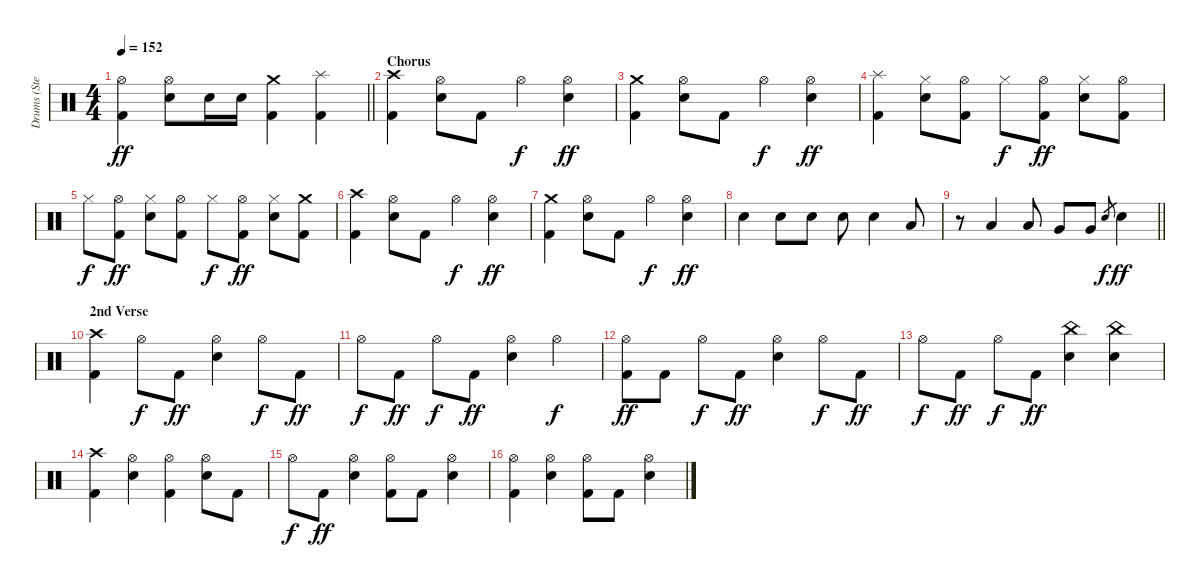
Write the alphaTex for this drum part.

\track ("Drums (Steven)" "Drums (Ste") {instrument percussion}
\staff {score}
\articulation defaults
\ts (4 4)
\tempo 152
\clef neutral
\barLineRight lightlight
\ks c
("Hi-Hat (open)" "Kick (hit) 2").4{dy ff} ("Hi-Hat (open)" "Snare (hit) 2").8 "Snare (hit) 2".16 "Snare (hit) 2".16 ("Crash medium (hit)" "Kick (hit) 2").4 ("Splash (hit)" "Kick (hit) 2").4 |
\section ("" "Chorus")
("Crash high (hit)" "Kick (hit) 2").4 ("Hi-Hat (open)" "Snare (hit) 2").8 "Kick (hit) 2".8 "Hi-Hat (open)".4{dy f} ("Hi-Hat (open)" "Snare (hit) 2").4{dy ff} |
("Crash medium (hit)" "Kick (hit) 2").4 ("Hi-Hat (open)" "Snare (hit) 2").8 "Kick (hit) 2".8 "Hi-Hat (open)".4{dy f} ("Hi-Hat (open)" "Snare (hit) 2").4{dy ff} |
("Splash (hit)" "Kick (hit) 2").4 ("Hi-Hat (closed)" "Snare (hit) 2").8 ("Hi-Hat (open)" "Kick (hit) 2").8 "Hi-Hat (closed)".8{dy f} ("Hi-Hat (open)" "Kick (hit) 2").8{dy ff} ("Hi-Hat (closed)" "Snare (hit) 2").8 ("Hi-Hat (open)" "Kick (hit) 2").8 |
"Hi-Hat (closed)".8{dy f} ("Hi-Hat (open)" "Kick (hit) 2").8{dy ff} ("Hi-Hat (closed)" "Snare (hit) 2").8 ("Hi-Hat (open)" "Kick (hit) 2").8 "Hi-Hat (closed)".8{dy f} ("Hi-Hat (open)" "Kick (hit) 2").8{dy ff} ("Hi-Hat (closed)" "Snare (hit) 2").8 ("Crash medium (hit)" "Kick (hit) 2").8 |
("Crash high (hit)" "Kick (hit) 2").4 ("Hi-Hat (open)" "Snare (hit) 2").8 "Kick (hit) 2".8 "Hi-Hat (open)".4{dy f} ("Hi-Hat (open)" "Snare (hit) 2").4{dy ff} |
("Crash medium (hit)" "Kick (hit) 2").4 ("Hi-Hat (open)" "Snare (hit) 2").8 "Kick (hit) 2".8 "Hi-Hat (open)".4{dy f} ("Hi-Hat (open)" "Snare (hit) 2").4{dy ff} |
"Snare (hit) 2".4 "Snare (hit) 2".8 "Snare (hit) 2".8 "Snare (hit) 2".8 "Snare (hit) 2".4 "Low Tom (hit)".8 |
\barLineRight lightlight
r.8 "Low Tom (hit)".4 "Low Tom (hit)".8 "Very Low Tom (hit)".8 "Very Low Tom (hit)".8 "Snare (hit) 2".8{gr dy f} "Snare (hit) 2".4{dy ff} |
\section ("" "2nd Verse")
("Crash high (hit)" "Kick (hit) 2").4 "Hi-Hat (open)".8{dy f} "Kick (hit) 2".8{dy ff} ("Hi-Hat (open)" "Snare (hit) 2").4 "Hi-Hat (open)".8{dy f} "Kick (hit) 2".8{dy ff} |
"Hi-Hat (open)".8{dy f} "Kick (hit) 2".8{dy ff} "Hi-Hat (open)".8{dy f} "Kick (hit) 2".8{dy ff} ("Hi-Hat (open)" "Snare (hit) 2").4 "Hi-Hat (open)".4{dy f} |
("Hi-Hat (open)" "Kick (hit) 2").8{dy ff} "Kick (hit) 2".8 "Hi-Hat (open)".8{dy f} "Kick (hit) 2".8{dy ff} ("Hi-Hat (open)" "Snare (hit) 2").4 "Hi-Hat (open)".8{dy f} "Kick (hit) 2".8{dy ff} |
"Hi-Hat (open)".8{dy f} "Kick (hit) 2".8{dy ff} "Hi-Hat (open)".8{dy f} "Kick (hit) 2".8{dy ff} ("China (hit)" "Snare (hit) 2").4 ("China (hit)" "Snare (hit) 2").4 |
("Crash high (hit)" "Kick (hit) 2").4 ("Hi-Hat (open)" "Snare (hit) 2").4 ("Hi-Hat (open)" "Kick (hit) 2").4 ("Hi-Hat (open)" "Snare (hit) 2").8 "Kick (hit) 2".8 |
"Hi-Hat (open)".8{dy f} "Kick (hit) 2".8{dy ff} ("Hi-Hat (open)" "Snare (hit) 2").4 ("Hi-Hat (open)" "Kick (hit) 2").8 "Kick (hit) 2".8 ("Hi-Hat (open)" "Snare (hit) 2").4 |
("Hi-Hat (open)" "Kick (hit) 2").4 ("Hi-Hat (open)" "Snare (hit) 2").4 ("Hi-Hat (open)" "Kick (hit) 2").8 "Kick (hit) 2".8 ("Hi-Hat (open)" "Snare (hit) 2").4
